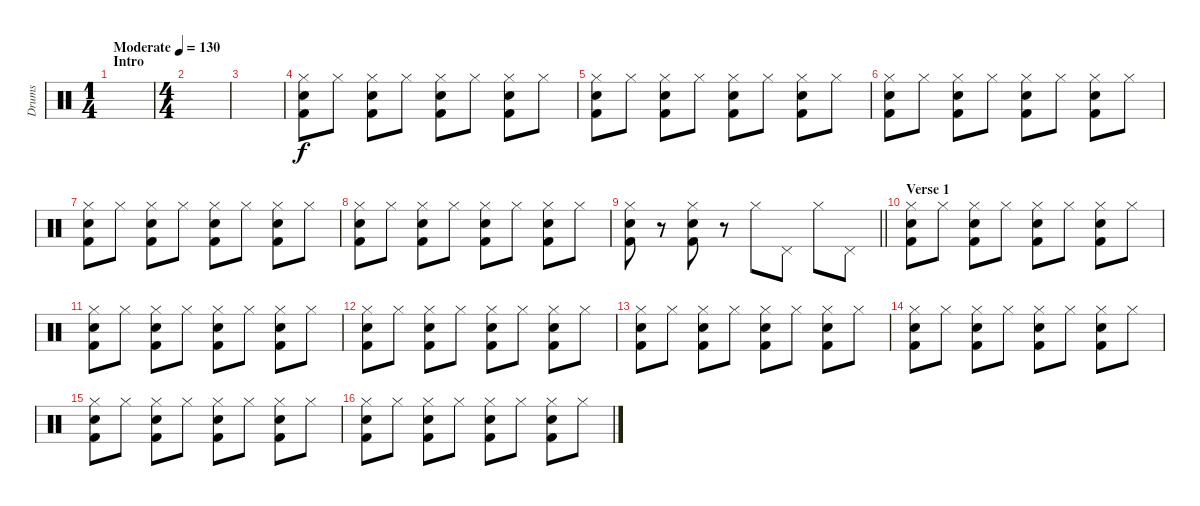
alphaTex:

\track ("Drums" "Drums") {instrument percussion}
\staff {score}
\articulation defaults
\ts (1 4)
\section ("" "Intro")
\tempo (130 "Moderate")
\clef neutral
\ks c
|
\ts (4 4)
|
|
("Hi-Hat (closed)" "Electric Snare (hit)" "Kick (hit) 2").8 "Hi-Hat (closed)".8 ("Hi-Hat (closed)" "Electric Snare (hit)" "Kick (hit) 2").8 "Hi-Hat (closed)".8 ("Hi-Hat (closed)" "Electric Snare (hit)" "Kick (hit) 2").8 "Hi-Hat (closed)".8 ("Hi-Hat (closed)" "Electric Snare (hit)" "Kick (hit) 2").8 "Hi-Hat (closed)".8 |
("Hi-Hat (closed)" "Electric Snare (hit)" "Kick (hit) 2").8 "Hi-Hat (closed)".8 ("Hi-Hat (closed)" "Electric Snare (hit)" "Kick (hit) 2").8 "Hi-Hat (closed)".8 ("Hi-Hat (closed)" "Electric Snare (hit)" "Kick (hit) 2").8 "Hi-Hat (closed)".8 ("Hi-Hat (closed)" "Electric Snare (hit)" "Kick (hit) 2").8 "Hi-Hat (closed)".8 |
("Hi-Hat (closed)" "Electric Snare (hit)" "Kick (hit) 2").8 "Hi-Hat (closed)".8 ("Hi-Hat (closed)" "Electric Snare (hit)" "Kick (hit) 2").8 "Hi-Hat (closed)".8 ("Hi-Hat (closed)" "Electric Snare (hit)" "Kick (hit) 2").8 "Hi-Hat (closed)".8 ("Hi-Hat (closed)" "Electric Snare (hit)" "Kick (hit) 2").8 "Hi-Hat (closed)".8 |
("Hi-Hat (closed)" "Electric Snare (hit)" "Kick (hit) 2").8 "Hi-Hat (closed)".8 ("Hi-Hat (closed)" "Electric Snare (hit)" "Kick (hit) 2").8 "Hi-Hat (closed)".8 ("Hi-Hat (closed)" "Electric Snare (hit)" "Kick (hit) 2").8 "Hi-Hat (closed)".8 ("Hi-Hat (closed)" "Electric Snare (hit)" "Kick (hit) 2").8 "Hi-Hat (closed)".8 |
("Hi-Hat (closed)" "Electric Snare (hit)" "Kick (hit) 2").8 "Hi-Hat (closed)".8 ("Hi-Hat (closed)" "Electric Snare (hit)" "Kick (hit) 2").8 "Hi-Hat (closed)".8 ("Hi-Hat (closed)" "Electric Snare (hit)" "Kick (hit) 2").8 "Hi-Hat (closed)".8 ("Hi-Hat (closed)" "Electric Snare (hit)" "Kick (hit) 2").8 "Hi-Hat (closed)".8 |
\barLineRight lightlight
("Hi-Hat (closed)" "Electric Snare (hit)" "Kick (hit) 2").8 r.8 ("Hi-Hat (closed)" "Electric Snare (hit)" "Kick (hit) 2").8 r.8 "Hi-Hat (closed)".8 "Pedal Hi-Hat (hit)".8 "Hi-Hat (closed)".8 "Pedal Hi-Hat (hit)".8 |
\section ("" "Verse 1")
("Hi-Hat (closed)" "Electric Snare (hit)" "Kick (hit) 2").8 "Hi-Hat (closed)".8 ("Hi-Hat (closed)" "Electric Snare (hit)" "Kick (hit) 2").8 "Hi-Hat (closed)".8 ("Hi-Hat (closed)" "Electric Snare (hit)" "Kick (hit) 2").8 "Hi-Hat (closed)".8 ("Hi-Hat (closed)" "Electric Snare (hit)" "Kick (hit) 2").8 "Hi-Hat (closed)".8 |
("Hi-Hat (closed)" "Electric Snare (hit)" "Kick (hit) 2").8 "Hi-Hat (closed)".8 ("Hi-Hat (closed)" "Electric Snare (hit)" "Kick (hit) 2").8 "Hi-Hat (closed)".8 ("Hi-Hat (closed)" "Electric Snare (hit)" "Kick (hit) 2").8 "Hi-Hat (closed)".8 ("Hi-Hat (closed)" "Electric Snare (hit)" "Kick (hit) 2").8 "Hi-Hat (closed)".8 |
("Hi-Hat (closed)" "Electric Snare (hit)" "Kick (hit) 2").8 "Hi-Hat (closed)".8 ("Hi-Hat (closed)" "Electric Snare (hit)" "Kick (hit) 2").8 "Hi-Hat (closed)".8 ("Hi-Hat (closed)" "Electric Snare (hit)" "Kick (hit) 2").8 "Hi-Hat (closed)".8 ("Hi-Hat (closed)" "Electric Snare (hit)" "Kick (hit) 2").8 "Hi-Hat (closed)".8 |
("Hi-Hat (closed)" "Electric Snare (hit)" "Kick (hit) 2").8 "Hi-Hat (closed)".8 ("Hi-Hat (closed)" "Electric Snare (hit)" "Kick (hit) 2").8 "Hi-Hat (closed)".8 ("Hi-Hat (closed)" "Electric Snare (hit)" "Kick (hit) 2").8 "Hi-Hat (closed)".8 ("Hi-Hat (closed)" "Electric Snare (hit)" "Kick (hit) 2").8 "Hi-Hat (closed)".8 |
("Hi-Hat (closed)" "Electric Snare (hit)" "Kick (hit) 2").8 "Hi-Hat (closed)".8 ("Hi-Hat (closed)" "Electric Snare (hit)" "Kick (hit) 2").8 "Hi-Hat (closed)".8 ("Hi-Hat (closed)" "Electric Snare (hit)" "Kick (hit) 2").8 "Hi-Hat (closed)".8 ("Hi-Hat (closed)" "Electric Snare (hit)" "Kick (hit) 2").8 "Hi-Hat (closed)".8 |
("Hi-Hat (closed)" "Electric Snare (hit)" "Kick (hit) 2").8 "Hi-Hat (closed)".8 ("Hi-Hat (closed)" "Electric Snare (hit)" "Kick (hit) 2").8 "Hi-Hat (closed)".8 ("Hi-Hat (closed)" "Electric Snare (hit)" "Kick (hit) 2").8 "Hi-Hat (closed)".8 ("Hi-Hat (closed)" "Electric Snare (hit)" "Kick (hit) 2").8 "Hi-Hat (closed)".8 |
("Hi-Hat (closed)" "Electric Snare (hit)" "Kick (hit) 2").8 "Hi-Hat (closed)".8 ("Hi-Hat (closed)" "Electric Snare (hit)" "Kick (hit) 2").8 "Hi-Hat (closed)".8 ("Hi-Hat (closed)" "Electric Snare (hit)" "Kick (hit) 2").8 "Hi-Hat (closed)".8 ("Hi-Hat (closed)" "Electric Snare (hit)" "Kick (hit) 2").8 "Hi-Hat (closed)".8
